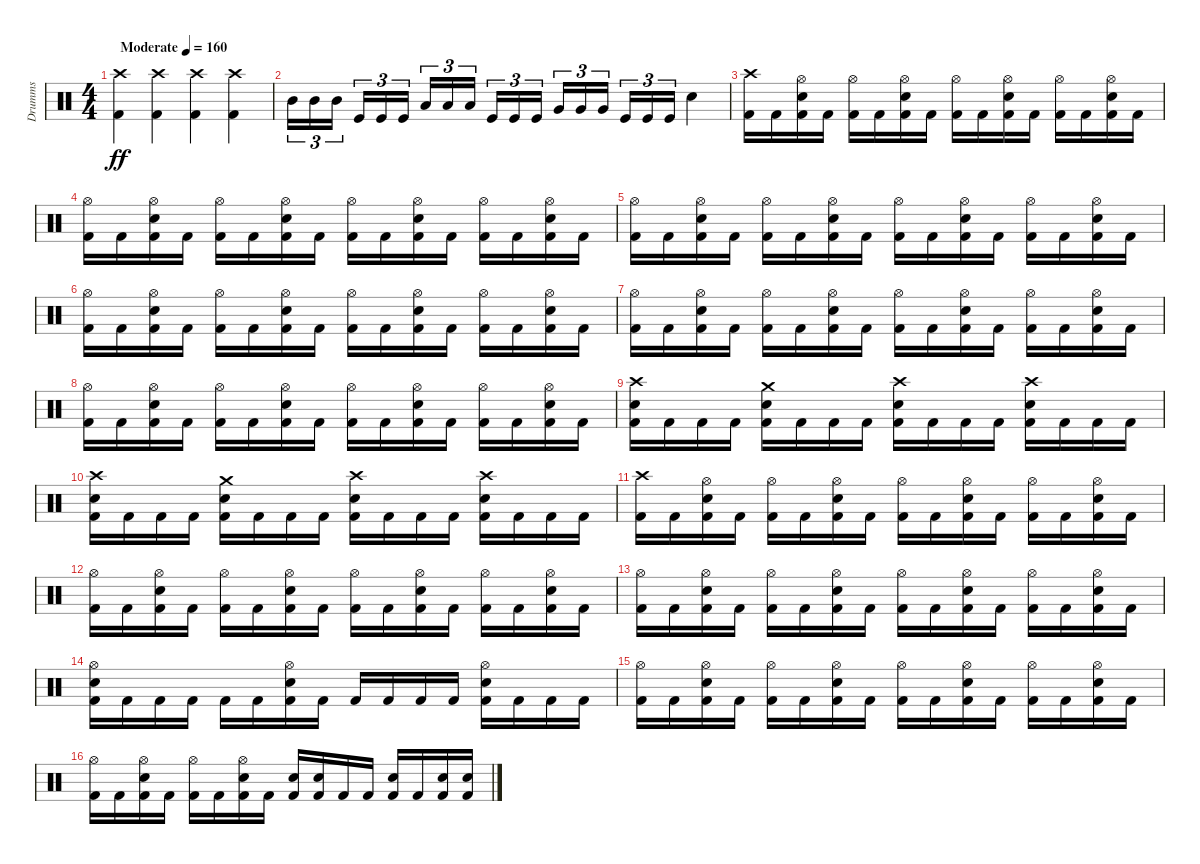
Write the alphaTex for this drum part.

\track ("Drumms" "Drumms") {instrument percussion}
\staff {score}
\articulation defaults
\ts (4 4)
\tempo (160 "Moderate")
\clef neutral
\ks c
("Crash high (hit)" "Kick (hit) 2").4{dy ff} ("Crash high (hit)" "Kick (hit) 2").4 ("Crash high (hit)" "Kick (hit) 2").4 ("Crash high (hit)" "Kick (hit) 2").4 |
"Mid Tom (hit)".16{tu (3 2)} "Mid Tom (hit)".16{tu (3 2)} "Mid Tom (hit)".16{tu (3 2) beam splitsecondary} "Kick (hit)".16{tu (3 2)} "Kick (hit)".16{tu (3 2)} "Kick (hit)".16{tu (3 2)} "Low Tom (hit)".16{tu (3 2)} "Low Tom (hit)".16{tu (3 2)} "Low Tom (hit)".16{tu (3 2) beam splitsecondary} "Kick (hit)".16{tu (3 2)} "Kick (hit)".16{tu (3 2)} "Kick (hit)".16{tu (3 2)} "Very Low Tom (hit)".16{tu (3 2)} "Very Low Tom (hit)".16{tu (3 2)} "Very Low Tom (hit)".16{tu (3 2) beam splitsecondary} "Kick (hit)".16{tu (3 2)} "Kick (hit)".16{tu (3 2)} "Kick (hit)".16{tu (3 2)} "Electric Snare (hit)".4 |
("Crash high (hit)" "Kick (hit) 2").16 "Kick (hit) 2".16 ("Hi-Hat (open)" "Electric Snare (hit)" "Kick (hit) 2").16 "Kick (hit) 2".16 ("Hi-Hat (open)" "Kick (hit) 2").16 "Kick (hit) 2".16 ("Hi-Hat (open)" "Electric Snare (hit)" "Kick (hit) 2").16 "Kick (hit) 2".16 ("Hi-Hat (open)" "Kick (hit) 2").16 "Kick (hit) 2".16 ("Hi-Hat (open)" "Electric Snare (hit)" "Kick (hit) 2").16 "Kick (hit) 2".16 ("Hi-Hat (open)" "Kick (hit) 2").16 "Kick (hit) 2".16 ("Hi-Hat (open)" "Electric Snare (hit)" "Kick (hit) 2").16 "Kick (hit) 2".16 |
("Hi-Hat (open)" "Kick (hit) 2").16 "Kick (hit) 2".16 ("Hi-Hat (open)" "Electric Snare (hit)" "Kick (hit) 2").16 "Kick (hit) 2".16 ("Hi-Hat (open)" "Kick (hit) 2").16 "Kick (hit) 2".16 ("Hi-Hat (open)" "Electric Snare (hit)" "Kick (hit) 2").16 "Kick (hit) 2".16 ("Hi-Hat (open)" "Kick (hit) 2").16 "Kick (hit) 2".16 ("Hi-Hat (open)" "Electric Snare (hit)" "Kick (hit) 2").16 "Kick (hit) 2".16 ("Hi-Hat (open)" "Kick (hit) 2").16 "Kick (hit) 2".16 ("Hi-Hat (open)" "Electric Snare (hit)" "Kick (hit) 2").16 "Kick (hit) 2".16 |
("Hi-Hat (open)" "Kick (hit) 2").16 "Kick (hit) 2".16 ("Hi-Hat (open)" "Electric Snare (hit)" "Kick (hit) 2").16 "Kick (hit) 2".16 ("Hi-Hat (open)" "Kick (hit) 2").16 "Kick (hit) 2".16 ("Hi-Hat (open)" "Electric Snare (hit)" "Kick (hit) 2").16 "Kick (hit) 2".16 ("Hi-Hat (open)" "Kick (hit) 2").16 "Kick (hit) 2".16 ("Hi-Hat (open)" "Electric Snare (hit)" "Kick (hit) 2").16 "Kick (hit) 2".16 ("Hi-Hat (open)" "Kick (hit) 2").16 "Kick (hit) 2".16 ("Hi-Hat (open)" "Electric Snare (hit)" "Kick (hit) 2").16 "Kick (hit) 2".16 |
("Hi-Hat (open)" "Kick (hit) 2").16 "Kick (hit) 2".16 ("Hi-Hat (open)" "Electric Snare (hit)" "Kick (hit) 2").16 "Kick (hit) 2".16 ("Hi-Hat (open)" "Kick (hit) 2").16 "Kick (hit) 2".16 ("Hi-Hat (open)" "Electric Snare (hit)" "Kick (hit) 2").16 "Kick (hit) 2".16 ("Hi-Hat (open)" "Kick (hit) 2").16 "Kick (hit) 2".16 ("Hi-Hat (open)" "Electric Snare (hit)" "Kick (hit) 2").16 "Kick (hit) 2".16 ("Hi-Hat (open)" "Kick (hit) 2").16 "Kick (hit) 2".16 ("Hi-Hat (open)" "Electric Snare (hit)" "Kick (hit) 2").16 "Kick (hit) 2".16 |
("Hi-Hat (open)" "Kick (hit) 2").16 "Kick (hit) 2".16 ("Hi-Hat (open)" "Electric Snare (hit)" "Kick (hit) 2").16 "Kick (hit) 2".16 ("Hi-Hat (open)" "Kick (hit) 2").16 "Kick (hit) 2".16 ("Hi-Hat (open)" "Electric Snare (hit)" "Kick (hit) 2").16 "Kick (hit) 2".16 ("Hi-Hat (open)" "Kick (hit) 2").16 "Kick (hit) 2".16 ("Hi-Hat (open)" "Electric Snare (hit)" "Kick (hit) 2").16 "Kick (hit) 2".16 ("Hi-Hat (open)" "Kick (hit) 2").16 "Kick (hit) 2".16 ("Hi-Hat (open)" "Electric Snare (hit)" "Kick (hit) 2").16 "Kick (hit) 2".16 |
("Hi-Hat (open)" "Kick (hit) 2").16 "Kick (hit) 2".16 ("Hi-Hat (open)" "Electric Snare (hit)" "Kick (hit) 2").16 "Kick (hit) 2".16 ("Hi-Hat (open)" "Kick (hit) 2").16 "Kick (hit) 2".16 ("Hi-Hat (open)" "Electric Snare (hit)" "Kick (hit) 2").16 "Kick (hit) 2".16 ("Hi-Hat (open)" "Kick (hit) 2").16 "Kick (hit) 2".16 ("Hi-Hat (open)" "Electric Snare (hit)" "Kick (hit) 2").16 "Kick (hit) 2".16 ("Hi-Hat (open)" "Kick (hit) 2").16 "Kick (hit) 2".16 ("Hi-Hat (open)" "Electric Snare (hit)" "Kick (hit) 2").16 "Kick (hit) 2".16 |
("Crash high (hit)" "Electric Snare (hit)" "Kick (hit) 2").16 "Kick (hit) 2".16 "Kick (hit) 2".16 "Kick (hit) 2".16 ("Crash medium (hit)" "Electric Snare (hit)" "Kick (hit) 2").16 "Kick (hit) 2".16 "Kick (hit) 2".16 "Kick (hit) 2".16 ("Crash high (hit)" "Electric Snare (hit)" "Kick (hit) 2").16 "Kick (hit) 2".16 "Kick (hit) 2".16 "Kick (hit) 2".16 ("Crash high (hit)" "Electric Snare (hit)" "Kick (hit) 2").16 "Kick (hit) 2".16 "Kick (hit) 2".16 "Kick (hit) 2".16 |
("Crash high (hit)" "Electric Snare (hit)" "Kick (hit) 2").16 "Kick (hit) 2".16 "Kick (hit) 2".16 "Kick (hit) 2".16 ("Crash medium (hit)" "Electric Snare (hit)" "Kick (hit) 2").16 "Kick (hit) 2".16 "Kick (hit) 2".16 "Kick (hit) 2".16 ("Crash high (hit)" "Electric Snare (hit)" "Kick (hit) 2").16 "Kick (hit) 2".16 "Kick (hit) 2".16 "Kick (hit) 2".16 ("Crash high (hit)" "Electric Snare (hit)" "Kick (hit) 2").16 "Kick (hit) 2".16 "Kick (hit) 2".16 "Kick (hit) 2".16 |
("Crash high (hit)" "Kick (hit) 2").16 "Kick (hit) 2".16 ("Hi-Hat (open)" "Electric Snare (hit)" "Kick (hit) 2").16 "Kick (hit) 2".16 ("Hi-Hat (open)" "Kick (hit) 2").16 "Kick (hit) 2".16 ("Hi-Hat (open)" "Electric Snare (hit)" "Kick (hit) 2").16 "Kick (hit) 2".16 ("Hi-Hat (open)" "Kick (hit) 2").16 "Kick (hit) 2".16 ("Hi-Hat (open)" "Electric Snare (hit)" "Kick (hit) 2").16 "Kick (hit) 2".16 ("Hi-Hat (open)" "Kick (hit) 2").16 "Kick (hit) 2".16 ("Hi-Hat (open)" "Electric Snare (hit)" "Kick (hit) 2").16 "Kick (hit) 2".16 |
("Hi-Hat (open)" "Kick (hit) 2").16 "Kick (hit) 2".16 ("Hi-Hat (open)" "Electric Snare (hit)" "Kick (hit) 2").16 "Kick (hit) 2".16 ("Hi-Hat (open)" "Kick (hit) 2").16 "Kick (hit) 2".16 ("Hi-Hat (open)" "Electric Snare (hit)" "Kick (hit) 2").16 "Kick (hit) 2".16 ("Hi-Hat (open)" "Kick (hit) 2").16 "Kick (hit) 2".16 ("Hi-Hat (open)" "Electric Snare (hit)" "Kick (hit) 2").16 "Kick (hit) 2".16 ("Hi-Hat (open)" "Kick (hit) 2").16 "Kick (hit) 2".16 ("Hi-Hat (open)" "Electric Snare (hit)" "Kick (hit) 2").16 "Kick (hit) 2".16 |
("Hi-Hat (open)" "Kick (hit) 2").16 "Kick (hit) 2".16 ("Hi-Hat (open)" "Electric Snare (hit)" "Kick (hit) 2").16 "Kick (hit) 2".16 ("Hi-Hat (open)" "Kick (hit) 2").16 "Kick (hit) 2".16 ("Hi-Hat (open)" "Electric Snare (hit)" "Kick (hit) 2").16 "Kick (hit) 2".16 ("Hi-Hat (open)" "Kick (hit) 2").16 "Kick (hit) 2".16 ("Hi-Hat (open)" "Electric Snare (hit)" "Kick (hit) 2").16 "Kick (hit) 2".16 ("Hi-Hat (open)" "Kick (hit) 2").16 "Kick (hit) 2".16 ("Hi-Hat (open)" "Electric Snare (hit)" "Kick (hit) 2").16 "Kick (hit) 2".16 |
("Hi-Hat (open)" "Electric Snare (hit)" "Kick (hit) 2").16 "Kick (hit) 2".16 "Kick (hit) 2".16 "Kick (hit) 2".16 "Kick (hit) 2".16 "Kick (hit) 2".16 ("Hi-Hat (open)" "Electric Snare (hit)" "Kick (hit) 2").16 "Kick (hit) 2".16 "Kick (hit) 2".16 "Kick (hit) 2".16 "Kick (hit) 2".16 "Kick (hit) 2".16 ("Hi-Hat (open)" "Electric Snare (hit)" "Kick (hit) 2").16 "Kick (hit) 2".16 "Kick (hit) 2".16 "Kick (hit) 2".16 |
("Hi-Hat (open)" "Kick (hit) 2").16 "Kick (hit) 2".16 ("Hi-Hat (open)" "Electric Snare (hit)" "Kick (hit) 2").16 "Kick (hit) 2".16 ("Hi-Hat (open)" "Kick (hit) 2").16 "Kick (hit) 2".16 ("Hi-Hat (open)" "Electric Snare (hit)" "Kick (hit) 2").16 "Kick (hit) 2".16 ("Hi-Hat (open)" "Kick (hit) 2").16 "Kick (hit) 2".16 ("Hi-Hat (open)" "Electric Snare (hit)" "Kick (hit) 2").16 "Kick (hit) 2".16 ("Hi-Hat (open)" "Kick (hit) 2").16 "Kick (hit) 2".16 ("Hi-Hat (open)" "Electric Snare (hit)" "Kick (hit) 2").16 "Kick (hit) 2".16 |
("Hi-Hat (open)" "Kick (hit) 2").16 "Kick (hit) 2".16 ("Hi-Hat (open)" "Electric Snare (hit)" "Kick (hit) 2").16 "Kick (hit) 2".16 ("Hi-Hat (open)" "Kick (hit) 2").16 "Kick (hit) 2".16 ("Hi-Hat (open)" "Electric Snare (hit)" "Kick (hit) 2").16 "Kick (hit) 2".16 ("Electric Snare (hit)" "Kick (hit) 2").16 ("Electric Snare (hit)" "Kick (hit) 2").16 "Kick (hit) 2".16 "Kick (hit) 2".16 ("Electric Snare (hit)" "Kick (hit) 2").16 "Kick (hit) 2".16 ("Electric Snare (hit)" "Kick (hit) 2").16 ("Electric Snare (hit)" "Kick (hit) 2").16
